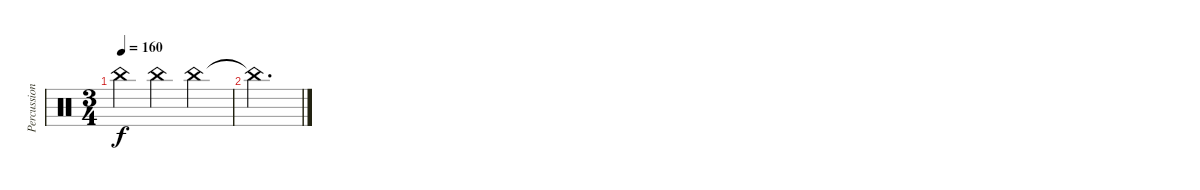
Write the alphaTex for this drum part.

\track ("Percussion" "Percussion") {instrument percussion}
\staff {score}
\articulation defaults
\ts (3 4)
\tempo 160
\clef neutral
\ks c "China (hit)".4{dy f} "China (hit)".4 "China (hit)".4
|
"China (hit)"{t}.2{d}
